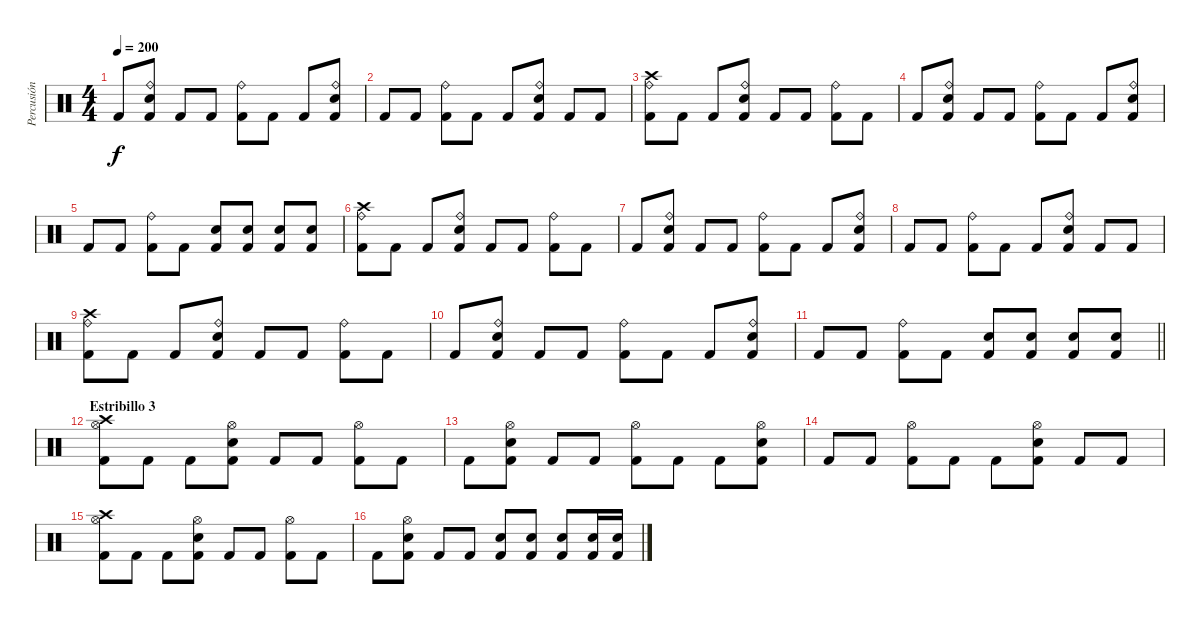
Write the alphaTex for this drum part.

\track ("Percusión" "Percusión") {instrument percussion}
\staff {score}
\articulation defaults
\ts (4 4)
\tempo 200
\clef neutral
\ks c "Kick (hit) 2".8{dy f}
("Ride (bell)" "Snare (hit) 2" "Kick (hit) 2").8 "Kick (hit) 2".8 "Kick (hit) 2".8 ("Ride (bell)" "Kick (hit) 2").8 "Kick (hit) 2".8 "Kick (hit) 2".8 ("Ride (bell)" "Snare (hit) 2" "Kick (hit) 2").8 |
"Kick (hit) 2".8 "Kick (hit) 2".8 ("Ride (bell)" "Kick (hit) 2").8 "Kick (hit) 2".8 "Kick (hit) 2".8 ("Ride (bell)" "Snare (hit) 2" "Kick (hit) 2").8 "Kick (hit) 2".8 "Kick (hit) 2".8 |
("Ride (bell)" "Crash high (hit)" "Kick (hit) 2").8 "Kick (hit) 2".8 "Kick (hit) 2".8 ("Ride (bell)" "Snare (hit) 2" "Kick (hit) 2").8 "Kick (hit) 2".8 "Kick (hit) 2".8 ("Ride (bell)" "Kick (hit) 2").8 "Kick (hit) 2".8 |
"Kick (hit) 2".8 ("Ride (bell)" "Snare (hit) 2" "Kick (hit) 2").8 "Kick (hit) 2".8 "Kick (hit) 2".8 ("Ride (bell)" "Kick (hit) 2").8 "Kick (hit) 2".8 "Kick (hit) 2".8 ("Ride (bell)" "Snare (hit) 2" "Kick (hit) 2").8 |
"Kick (hit) 2".8 "Kick (hit) 2".8 ("Ride (bell)" "Kick (hit) 2").8 "Kick (hit) 2".8 ("Snare (hit) 2" "Kick (hit) 2").8 ("Snare (hit) 2" "Kick (hit) 2").8 ("Snare (hit) 2" "Kick (hit) 2").8 ("Snare (hit) 2" "Kick (hit) 2").8 |
("Ride (bell)" "Crash high (hit)" "Kick (hit) 2").8 "Kick (hit) 2".8 "Kick (hit) 2".8 ("Ride (bell)" "Snare (hit) 2" "Kick (hit) 2").8 "Kick (hit) 2".8 "Kick (hit) 2".8 ("Ride (bell)" "Kick (hit) 2").8 "Kick (hit) 2".8 |
"Kick (hit) 2".8 ("Ride (bell)" "Snare (hit) 2" "Kick (hit) 2").8 "Kick (hit) 2".8 "Kick (hit) 2".8 ("Ride (bell)" "Kick (hit) 2").8 "Kick (hit) 2".8 "Kick (hit) 2".8 ("Ride (bell)" "Snare (hit) 2" "Kick (hit) 2").8 |
"Kick (hit) 2".8 "Kick (hit) 2".8 ("Ride (bell)" "Kick (hit) 2").8 "Kick (hit) 2".8 "Kick (hit) 2".8 ("Ride (bell)" "Snare (hit) 2" "Kick (hit) 2").8 "Kick (hit) 2".8 "Kick (hit) 2".8 |
("Ride (bell)" "Crash high (hit)" "Kick (hit) 2").8 "Kick (hit) 2".8 "Kick (hit) 2".8 ("Ride (bell)" "Snare (hit) 2" "Kick (hit) 2").8 "Kick (hit) 2".8 "Kick (hit) 2".8 ("Ride (bell)" "Kick (hit) 2").8 "Kick (hit) 2".8 |
"Kick (hit) 2".8 ("Ride (bell)" "Snare (hit) 2" "Kick (hit) 2").8 "Kick (hit) 2".8 "Kick (hit) 2".8 ("Ride (bell)" "Kick (hit) 2").8 "Kick (hit) 2".8 "Kick (hit) 2".8 ("Ride (bell)" "Snare (hit) 2" "Kick (hit) 2").8 |
\barLineRight lightlight "Kick (hit) 2".8 "Kick (hit) 2".8
("Ride (bell)" "Kick (hit) 2").8 "Kick (hit) 2".8 ("Snare (hit) 2" "Kick (hit) 2").8 ("Snare (hit) 2" "Kick (hit) 2").8 ("Snare (hit) 2" "Kick (hit) 2").8 ("Snare (hit) 2" "Kick (hit) 2").8 |
\section ("" "Estribillo 3")
("Hi-Hat (open)" "Crash high (hit)" "Kick (hit) 2").8 "Kick (hit) 2".8 "Kick (hit) 2".8 ("Hi-Hat (open)" "Snare (hit) 2" "Kick (hit) 2").8 "Kick (hit) 2".8 "Kick (hit) 2".8 ("Hi-Hat (open)" "Kick (hit) 2").8 "Kick (hit) 2".8 |
"Kick (hit) 2".8 ("Hi-Hat (open)" "Snare (hit) 2" "Kick (hit) 2").8 "Kick (hit) 2".8 "Kick (hit) 2".8 ("Hi-Hat (open)" "Kick (hit) 2").8 "Kick (hit) 2".8 "Kick (hit) 2".8 ("Hi-Hat (open)" "Snare (hit) 2" "Kick (hit) 2").8 |
"Kick (hit) 2".8 "Kick (hit) 2".8 ("Hi-Hat (open)" "Kick (hit) 2").8 "Kick (hit) 2".8 "Kick (hit) 2".8 ("Hi-Hat (open)" "Snare (hit) 2" "Kick (hit) 2").8 "Kick (hit) 2".8 "Kick (hit) 2".8 |
("Hi-Hat (open)" "Crash high (hit)" "Kick (hit) 2").8 "Kick (hit) 2".8 "Kick (hit) 2".8 ("Hi-Hat (open)" "Snare (hit) 2" "Kick (hit) 2").8 "Kick (hit) 2".8 "Kick (hit) 2".8 ("Hi-Hat (open)" "Kick (hit) 2").8 "Kick (hit) 2".8 |
"Kick (hit) 2".8 ("Hi-Hat (open)" "Snare (hit) 2" "Kick (hit) 2").8 "Kick (hit) 2".8 "Kick (hit) 2".8 ("Snare (hit) 2" "Kick (hit) 2").8 ("Snare (hit) 2" "Kick (hit) 2").8 ("Snare (hit) 2" "Kick (hit) 2").8 ("Snare (hit) 2" "Kick (hit) 2").16 ("Snare (hit) 2" "Kick (hit) 2").16
